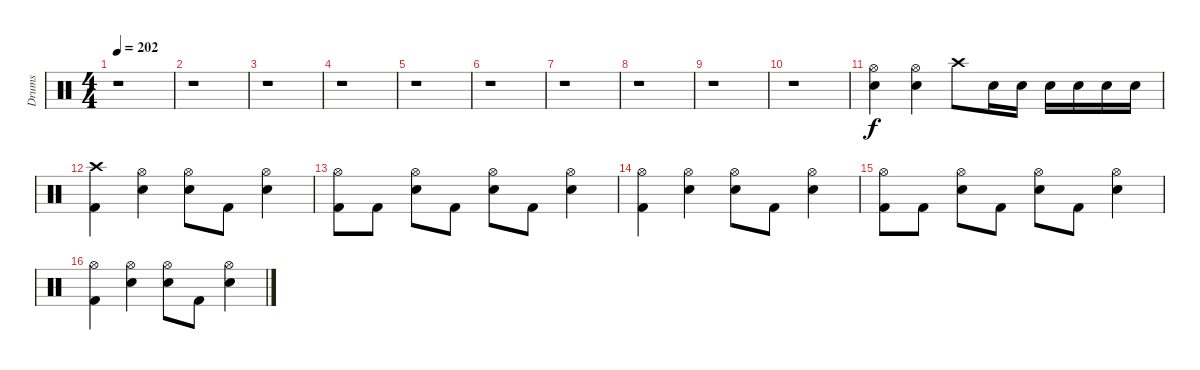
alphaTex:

\track ("Drums" "Drums") {instrument percussion}
\staff {score}
\articulation defaults
\ts (4 4)
\tempo 202
\clef neutral
\ks c
r.1{dy f} |
r.1 |
r.1 |
r.1 |
r.1 |
r.1 |
r.1 |
r.1 |
r.1 |
r.1 |
("Hi-Hat (open)" "Electric Snare (hit)").4 ("Hi-Hat (open)" "Electric Snare (hit)").4 "Crash high (hit)".8 "Electric Snare (hit)".16 "Electric Snare (hit)".16 "Electric Snare (hit)".16 "Electric Snare (hit)".16 "Electric Snare (hit)".16 "Electric Snare (hit)".16 |
("Crash high (hit)" "Kick (hit) 2").4 ("Hi-Hat (open)" "Electric Snare (hit)").4 ("Hi-Hat (open)" "Electric Snare (hit)").8 "Kick (hit) 2".8 ("Hi-Hat (open)" "Electric Snare (hit)").4 |
("Hi-Hat (open)" "Kick (hit) 2").8 "Kick (hit) 2".8 ("Hi-Hat (open)" "Electric Snare (hit)").8 "Kick (hit) 2".8 ("Hi-Hat (open)" "Electric Snare (hit)").8 "Kick (hit) 2".8 ("Hi-Hat (open)" "Electric Snare (hit)").4 |
("Hi-Hat (open)" "Kick (hit) 2").4 ("Hi-Hat (open)" "Electric Snare (hit)").4 ("Hi-Hat (open)" "Electric Snare (hit)").8 "Kick (hit) 2".8 ("Hi-Hat (open)" "Electric Snare (hit)").4 |
("Hi-Hat (open)" "Kick (hit) 2").8 "Kick (hit) 2".8 ("Hi-Hat (open)" "Electric Snare (hit)").8 "Kick (hit) 2".8 ("Hi-Hat (open)" "Electric Snare (hit)").8 "Kick (hit) 2".8 ("Hi-Hat (open)" "Electric Snare (hit)").4 |
("Hi-Hat (open)" "Kick (hit) 2").4 ("Hi-Hat (open)" "Electric Snare (hit)").4 ("Hi-Hat (open)" "Electric Snare (hit)").8 "Kick (hit) 2".8 ("Hi-Hat (open)" "Electric Snare (hit)").4
